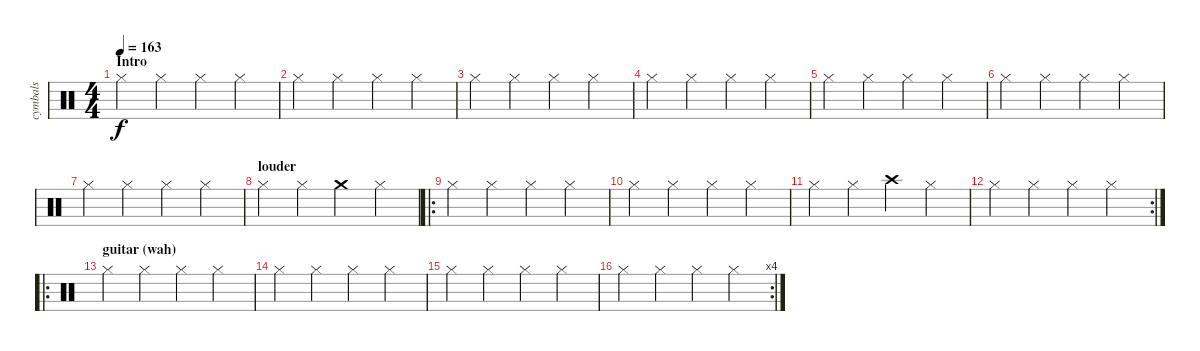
\track ("cymbals" "cymbals") {instrument percussion}
\staff {score}
\articulation defaults
\ts (4 4)
\section ("" "Intro")
\tempo 163
\clef neutral
\ks c "Hi-Hat (closed)".4{dy f} "Hi-Hat (closed)".4 "Hi-Hat (closed)".4 "Hi-Hat (closed)".4
|
"Hi-Hat (closed)".4 "Hi-Hat (closed)".4 "Hi-Hat (closed)".4 "Hi-Hat (closed)".4 |
"Hi-Hat (closed)".4 "Hi-Hat (closed)".4 "Hi-Hat (closed)".4 "Hi-Hat (closed)".4 |
"Hi-Hat (closed)".4 "Hi-Hat (closed)".4 "Hi-Hat (closed)".4 "Hi-Hat (closed)".4 |
"Hi-Hat (closed)".4 "Hi-Hat (closed)".4 "Hi-Hat (closed)".4 "Hi-Hat (closed)".4 |
"Hi-Hat (closed)".4 "Hi-Hat (closed)".4 "Hi-Hat (closed)".4 "Hi-Hat (closed)".4 |
"Hi-Hat (closed)".4 "Hi-Hat (closed)".4 "Hi-Hat (closed)".4 "Hi-Hat (closed)".4 |
\section ("" "louder")
"Hi-Hat (closed)".4{volume 13} "Hi-Hat (closed)".4 "Crash medium (hit)".4 "Hi-Hat (closed)".4 |
\ro "Hi-Hat (closed)".4 "Hi-Hat (closed)".4 "Hi-Hat (closed)".4 "Hi-Hat (closed)".4
|
"Hi-Hat (closed)".4 "Hi-Hat (closed)".4 "Hi-Hat (closed)".4 "Hi-Hat (closed)".4 |
"Hi-Hat (closed)".4 "Hi-Hat (closed)".4 "Crash high (hit)".4 "Hi-Hat (closed)".4 |
\rc 2 "Hi-Hat (closed)".4 "Hi-Hat (closed)".4 "Hi-Hat (closed)".4 "Hi-Hat (closed)".4
|
\ro
\section ("" "guitar (wah)")
"Hi-Hat (closed)".4 "Hi-Hat (closed)".4 "Hi-Hat (closed)".4 "Hi-Hat (closed)".4 |
"Hi-Hat (closed)".4 "Hi-Hat (closed)".4 "Hi-Hat (closed)".4 "Hi-Hat (closed)".4 |
"Hi-Hat (closed)".4 "Hi-Hat (closed)".4 "Hi-Hat (closed)".4 "Hi-Hat (closed)".4 |
\rc 4 "Hi-Hat (closed)".4 "Hi-Hat (closed)".4 "Hi-Hat (closed)".4 "Hi-Hat (closed)".4
